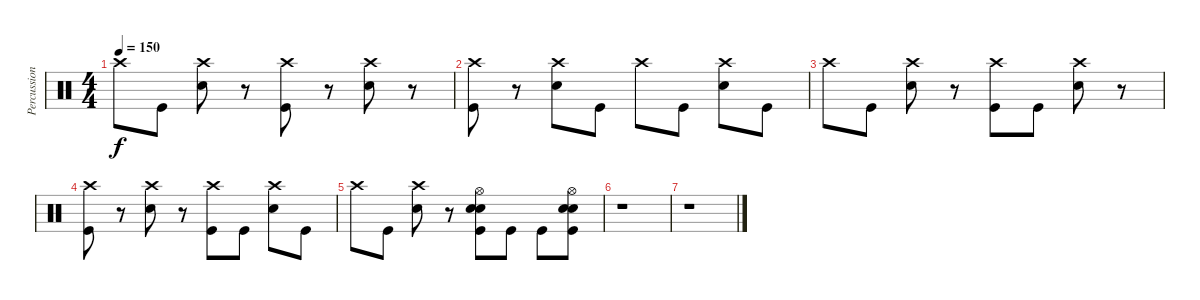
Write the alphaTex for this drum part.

\track ("Percussion" "Percussion") {instrument percussion}
\staff {score}
\articulation defaults
\ts (4 4)
\tempo 150
\clef neutral
\ks c "Crash high (hit)".8{dy f} "Kick (hit)".8
("Crash high (hit)" "Snare (hit) 2").8 r.8 ("Crash high (hit)" "Kick (hit)").8 r.8 ("Crash high (hit)" "Snare (hit) 2").8 r.8 |
("Crash high (hit)" "Kick (hit)").8 r.8 ("Crash high (hit)" "Snare (hit) 2").8 "Kick (hit)".8 "Crash high (hit)".8 "Kick (hit)".8 ("Crash high (hit)" "Snare (hit) 2").8 "Kick (hit)".8 |
"Crash high (hit)".8 "Kick (hit)".8 ("Crash high (hit)" "Snare (hit) 2").8 r.8 ("Crash high (hit)" "Kick (hit)").8 "Kick (hit)".8 ("Crash high (hit)" "Snare (hit) 2").8 r.8 |
("Crash high (hit)" "Kick (hit)").8 r.8 ("Crash high (hit)" "Snare (hit) 2").8 r.8 ("Crash high (hit)" "Kick (hit)").8 "Kick (hit)".8 ("Crash high (hit)" "Snare (hit) 2").8 "Kick (hit)".8 |
"Crash high (hit)".8 "Kick (hit)".8 ("Crash high (hit)" "Snare (hit) 2").8 r.8 ("Hi-Hat (open)" "Snare (hit) 2" "Snare (hit) 2" "Kick (hit)").8 "Kick (hit)".8 "Kick (hit)".8 ("Hi-Hat (open)" "Snare (hit) 2" "Snare (hit) 2" "Kick (hit)").8 |
r.1 |
r.1
